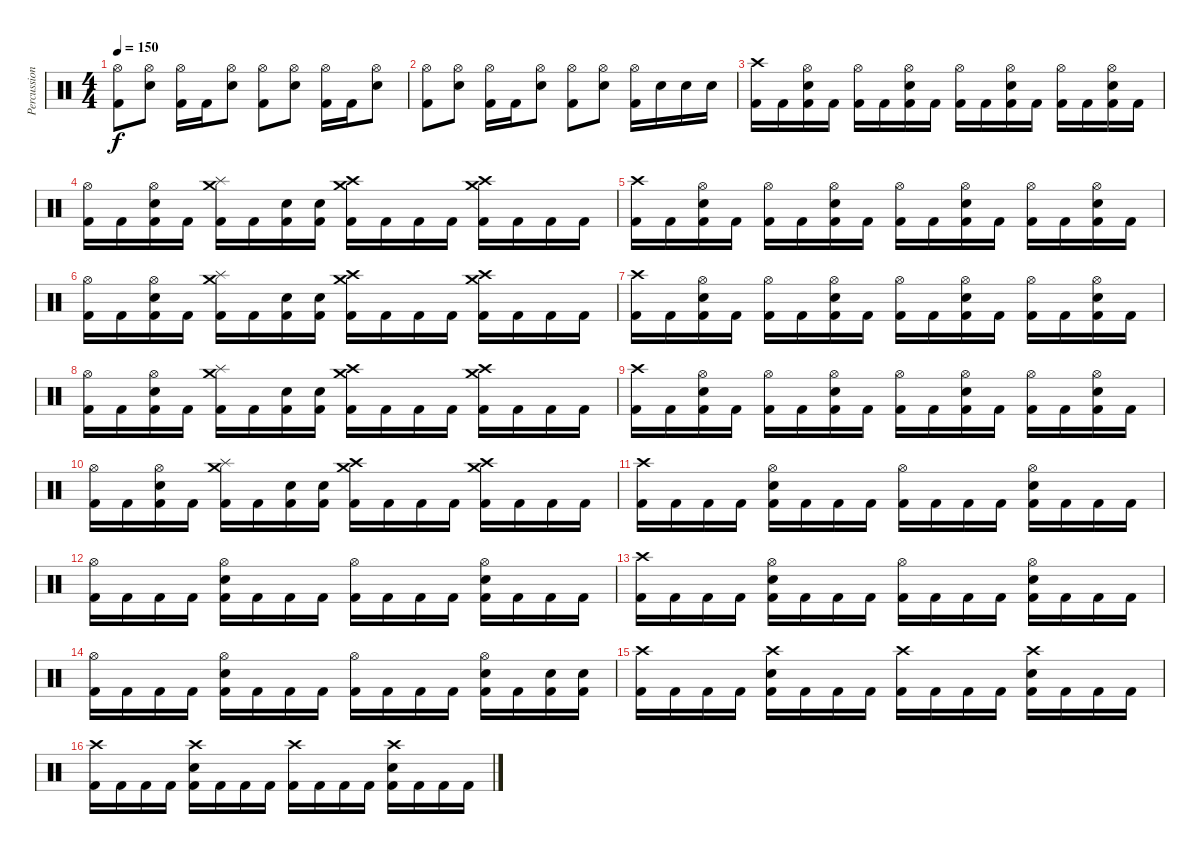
\track ("Percussion" "Percussion") {instrument percussion}
\staff {score}
\articulation defaults
\ts (4 4)
\tempo 150
\clef neutral
\ks c
("Hi-Hat (open)" "Kick (hit) 2").8{dy f} ("Hi-Hat (open)" "Electric Snare (hit)").8 ("Hi-Hat (open)" "Kick (hit) 2").16 "Kick (hit) 2".16 ("Hi-Hat (open)" "Electric Snare (hit)").8 ("Hi-Hat (open)" "Kick (hit) 2").8 ("Hi-Hat (open)" "Electric Snare (hit)").8 ("Hi-Hat (open)" "Kick (hit) 2").16 "Kick (hit) 2".16 ("Hi-Hat (open)" "Electric Snare (hit)").8 |
("Hi-Hat (open)" "Kick (hit) 2").8 ("Hi-Hat (open)" "Electric Snare (hit)").8 ("Hi-Hat (open)" "Kick (hit) 2").16 "Kick (hit) 2".16 ("Hi-Hat (open)" "Electric Snare (hit)").8 ("Hi-Hat (open)" "Kick (hit) 2").8 ("Hi-Hat (open)" "Electric Snare (hit)").8 ("Hi-Hat (open)" "Kick (hit) 2").16 "Electric Snare (hit)".16 "Electric Snare (hit)".16 "Electric Snare (hit)".16 |
("Crash high (hit)" "Kick (hit) 2").16 "Kick (hit) 2".16 ("Hi-Hat (open)" "Electric Snare (hit)" "Kick (hit) 2").16 "Kick (hit) 2".16 ("Hi-Hat (open)" "Kick (hit) 2").16 "Kick (hit) 2".16 ("Hi-Hat (open)" "Electric Snare (hit)" "Kick (hit) 2").16 "Kick (hit) 2".16 ("Hi-Hat (open)" "Kick (hit) 2").16 "Kick (hit) 2".16 ("Hi-Hat (open)" "Electric Snare (hit)" "Kick (hit) 2").16 "Kick (hit) 2".16 ("Hi-Hat (open)" "Kick (hit) 2").16 "Kick (hit) 2".16 ("Hi-Hat (open)" "Electric Snare (hit)" "Kick (hit) 2").16 "Kick (hit) 2".16 |
("Hi-Hat (open)" "Kick (hit) 2").16 "Kick (hit) 2".16 ("Hi-Hat (open)" "Electric Snare (hit)" "Kick (hit) 2").16 "Kick (hit) 2".16 ("Splash (hit)" "Crash medium (hit)" "Kick (hit) 2").16 "Kick (hit) 2".16 ("Electric Snare (hit)" "Kick (hit) 2").16 ("Electric Snare (hit)" "Kick (hit) 2").16 ("Crash high (hit)" "Crash medium (hit)" "Kick (hit) 2").16 "Kick (hit) 2".16 "Kick (hit) 2".16 "Kick (hit) 2".16 ("Crash medium (hit)" "Crash high (hit)" "Kick (hit) 2").16 "Kick (hit) 2".16 "Kick (hit) 2".16 "Kick (hit) 2".16 |
("Crash high (hit)" "Kick (hit) 2").16 "Kick (hit) 2".16 ("Hi-Hat (open)" "Electric Snare (hit)" "Kick (hit) 2").16 "Kick (hit) 2".16 ("Hi-Hat (open)" "Kick (hit) 2").16 "Kick (hit) 2".16 ("Hi-Hat (open)" "Electric Snare (hit)" "Kick (hit) 2").16 "Kick (hit) 2".16 ("Hi-Hat (open)" "Kick (hit) 2").16 "Kick (hit) 2".16 ("Hi-Hat (open)" "Electric Snare (hit)" "Kick (hit) 2").16 "Kick (hit) 2".16 ("Hi-Hat (open)" "Kick (hit) 2").16 "Kick (hit) 2".16 ("Hi-Hat (open)" "Electric Snare (hit)" "Kick (hit) 2").16 "Kick (hit) 2".16 |
("Hi-Hat (open)" "Kick (hit) 2").16 "Kick (hit) 2".16 ("Hi-Hat (open)" "Electric Snare (hit)" "Kick (hit) 2").16 "Kick (hit) 2".16 ("Splash (hit)" "Crash medium (hit)" "Kick (hit) 2").16 "Kick (hit) 2".16 ("Electric Snare (hit)" "Kick (hit) 2").16 ("Electric Snare (hit)" "Kick (hit) 2").16 ("Crash high (hit)" "Crash medium (hit)" "Kick (hit) 2").16 "Kick (hit) 2".16 "Kick (hit) 2".16 "Kick (hit) 2".16 ("Crash medium (hit)" "Crash high (hit)" "Kick (hit) 2").16 "Kick (hit) 2".16 "Kick (hit) 2".16 "Kick (hit) 2".16 |
("Crash high (hit)" "Kick (hit) 2").16 "Kick (hit) 2".16 ("Hi-Hat (open)" "Electric Snare (hit)" "Kick (hit) 2").16 "Kick (hit) 2".16 ("Hi-Hat (open)" "Kick (hit) 2").16 "Kick (hit) 2".16 ("Hi-Hat (open)" "Electric Snare (hit)" "Kick (hit) 2").16 "Kick (hit) 2".16 ("Hi-Hat (open)" "Kick (hit) 2").16 "Kick (hit) 2".16 ("Hi-Hat (open)" "Electric Snare (hit)" "Kick (hit) 2").16 "Kick (hit) 2".16 ("Hi-Hat (open)" "Kick (hit) 2").16 "Kick (hit) 2".16 ("Hi-Hat (open)" "Electric Snare (hit)" "Kick (hit) 2").16 "Kick (hit) 2".16 |
("Hi-Hat (open)" "Kick (hit) 2").16 "Kick (hit) 2".16 ("Hi-Hat (open)" "Electric Snare (hit)" "Kick (hit) 2").16 "Kick (hit) 2".16 ("Splash (hit)" "Crash medium (hit)" "Kick (hit) 2").16 "Kick (hit) 2".16 ("Electric Snare (hit)" "Kick (hit) 2").16 ("Electric Snare (hit)" "Kick (hit) 2").16 ("Crash high (hit)" "Crash medium (hit)" "Kick (hit) 2").16 "Kick (hit) 2".16 "Kick (hit) 2".16 "Kick (hit) 2".16 ("Crash medium (hit)" "Crash high (hit)" "Kick (hit) 2").16 "Kick (hit) 2".16 "Kick (hit) 2".16 "Kick (hit) 2".16 |
("Crash high (hit)" "Kick (hit) 2").16 "Kick (hit) 2".16 ("Hi-Hat (open)" "Electric Snare (hit)" "Kick (hit) 2").16 "Kick (hit) 2".16 ("Hi-Hat (open)" "Kick (hit) 2").16 "Kick (hit) 2".16 ("Hi-Hat (open)" "Electric Snare (hit)" "Kick (hit) 2").16 "Kick (hit) 2".16 ("Hi-Hat (open)" "Kick (hit) 2").16 "Kick (hit) 2".16 ("Hi-Hat (open)" "Electric Snare (hit)" "Kick (hit) 2").16 "Kick (hit) 2".16 ("Hi-Hat (open)" "Kick (hit) 2").16 "Kick (hit) 2".16 ("Hi-Hat (open)" "Electric Snare (hit)" "Kick (hit) 2").16 "Kick (hit) 2".16 |
("Hi-Hat (open)" "Kick (hit) 2").16 "Kick (hit) 2".16 ("Hi-Hat (open)" "Electric Snare (hit)" "Kick (hit) 2").16 "Kick (hit) 2".16 ("Splash (hit)" "Crash medium (hit)" "Kick (hit) 2").16 "Kick (hit) 2".16 ("Electric Snare (hit)" "Kick (hit) 2").16 ("Electric Snare (hit)" "Kick (hit) 2").16 ("Crash high (hit)" "Crash medium (hit)" "Kick (hit) 2").16 "Kick (hit) 2".16 "Kick (hit) 2".16 "Kick (hit) 2".16 ("Crash medium (hit)" "Crash high (hit)" "Kick (hit) 2").16 "Kick (hit) 2".16 "Kick (hit) 2".16 "Kick (hit) 2".16 |
("Crash high (hit)" "Kick (hit) 2").16 "Kick (hit) 2".16 "Kick (hit) 2".16 "Kick (hit) 2".16 ("Hi-Hat (open)" "Electric Snare (hit)" "Kick (hit) 2").16 "Kick (hit) 2".16 "Kick (hit) 2".16 "Kick (hit) 2".16 ("Hi-Hat (open)" "Kick (hit) 2").16 "Kick (hit) 2".16 "Kick (hit) 2".16 "Kick (hit) 2".16 ("Hi-Hat (open)" "Electric Snare (hit)" "Kick (hit) 2").16 "Kick (hit) 2".16 "Kick (hit) 2".16 "Kick (hit) 2".16 |
("Hi-Hat (open)" "Kick (hit) 2").16 "Kick (hit) 2".16 "Kick (hit) 2".16 "Kick (hit) 2".16 ("Hi-Hat (open)" "Electric Snare (hit)" "Kick (hit) 2").16 "Kick (hit) 2".16 "Kick (hit) 2".16 "Kick (hit) 2".16 ("Hi-Hat (open)" "Kick (hit) 2").16 "Kick (hit) 2".16 "Kick (hit) 2".16 "Kick (hit) 2".16 ("Hi-Hat (open)" "Electric Snare (hit)" "Kick (hit) 2").16 "Kick (hit) 2".16 "Kick (hit) 2".16 "Kick (hit) 2".16 |
("Crash high (hit)" "Kick (hit) 2").16 "Kick (hit) 2".16 "Kick (hit) 2".16 "Kick (hit) 2".16 ("Hi-Hat (open)" "Electric Snare (hit)" "Kick (hit) 2").16 "Kick (hit) 2".16 "Kick (hit) 2".16 "Kick (hit) 2".16 ("Hi-Hat (open)" "Kick (hit) 2").16 "Kick (hit) 2".16 "Kick (hit) 2".16 "Kick (hit) 2".16 ("Hi-Hat (open)" "Electric Snare (hit)" "Kick (hit) 2").16 "Kick (hit) 2".16 "Kick (hit) 2".16 "Kick (hit) 2".16 |
("Hi-Hat (open)" "Kick (hit) 2").16 "Kick (hit) 2".16 "Kick (hit) 2".16 "Kick (hit) 2".16 ("Hi-Hat (open)" "Electric Snare (hit)" "Kick (hit) 2").16 "Kick (hit) 2".16 "Kick (hit) 2".16 "Kick (hit) 2".16 ("Hi-Hat (open)" "Kick (hit) 2").16 "Kick (hit) 2".16 "Kick (hit) 2".16 "Kick (hit) 2".16 ("Hi-Hat (open)" "Electric Snare (hit)" "Kick (hit) 2").16 "Kick (hit) 2".16 ("Electric Snare (hit)" "Kick (hit) 2").16 ("Electric Snare (hit)" "Kick (hit) 2").16 |
("Crash high (hit)" "Kick (hit) 2").16 "Kick (hit) 2".16 "Kick (hit) 2".16 "Kick (hit) 2".16 ("Crash high (hit)" "Electric Snare (hit)" "Kick (hit) 2").16 "Kick (hit) 2".16 "Kick (hit) 2".16 "Kick (hit) 2".16 ("Crash high (hit)" "Kick (hit) 2").16 "Kick (hit) 2".16 "Kick (hit) 2".16 "Kick (hit) 2".16 ("Crash high (hit)" "Electric Snare (hit)" "Kick (hit) 2").16 "Kick (hit) 2".16 "Kick (hit) 2".16 "Kick (hit) 2".16 |
("Crash high (hit)" "Kick (hit) 2").16 "Kick (hit) 2".16 "Kick (hit) 2".16 "Kick (hit) 2".16 ("Crash high (hit)" "Electric Snare (hit)" "Kick (hit) 2").16 "Kick (hit) 2".16 "Kick (hit) 2".16 "Kick (hit) 2".16 ("Crash high (hit)" "Kick (hit) 2").16 "Kick (hit) 2".16 "Kick (hit) 2".16 "Kick (hit) 2".16 ("Crash high (hit)" "Electric Snare (hit)" "Kick (hit) 2").16 "Kick (hit) 2".16 "Kick (hit) 2".16 "Kick (hit) 2".16
